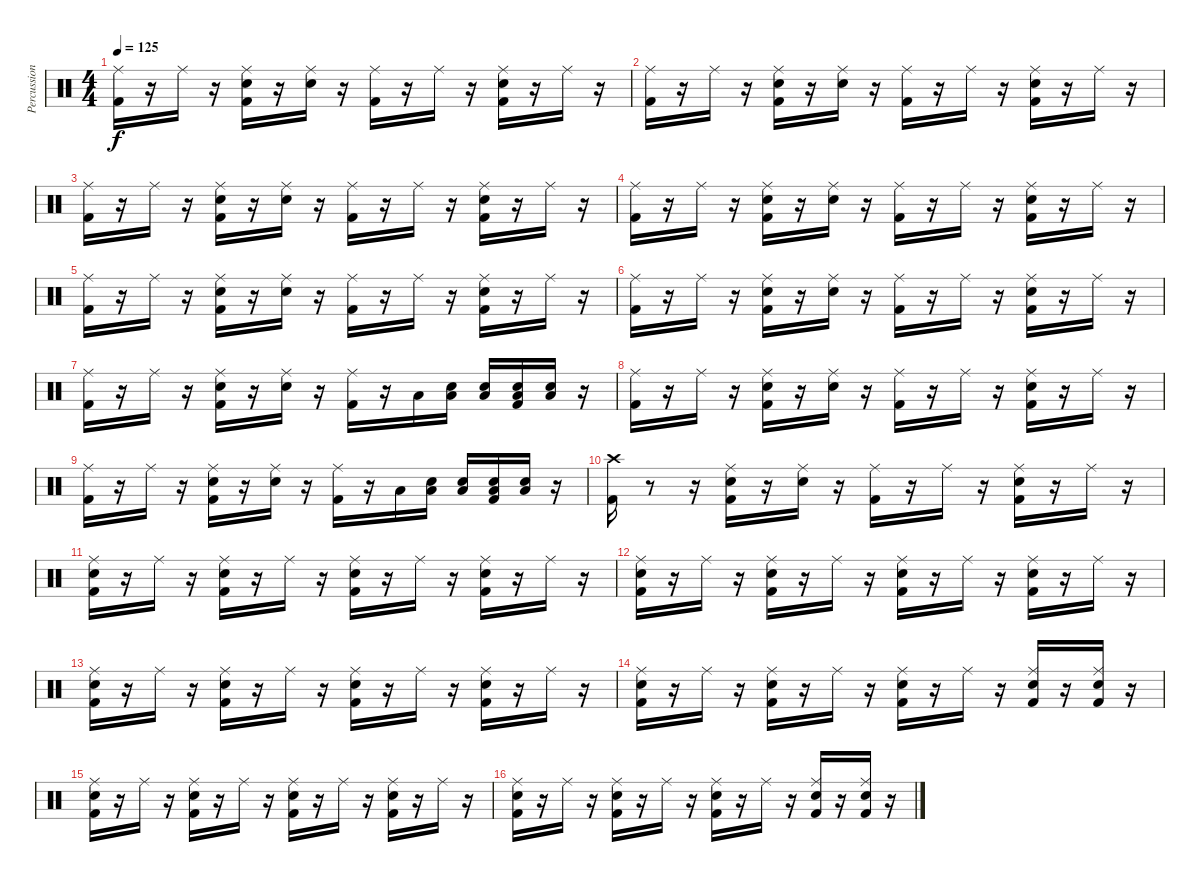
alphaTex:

\track ("Percussion" "Percussion") {instrument percussion}
\staff {score}
\articulation defaults
\ts (4 4)
\tempo 125
\clef neutral
\ks c
("Kick (hit) 2" "Ride (middle)").16{dy f} r.16 "Ride (middle)".16 r.16 ("Kick (hit) 2" "Snare (hit) 2" "Ride (middle)").16 r.16 ("Snare (hit) 2" "Ride (middle)").16 r.16 ("Kick (hit) 2" "Ride (middle)").16 r.16 "Ride (middle)".16 r.16 ("Kick (hit) 2" "Snare (hit) 2" "Ride (middle)").16 r.16 "Ride (middle)".16 r.16 |
("Kick (hit) 2" "Ride (middle)").16 r.16 "Ride (middle)".16 r.16 ("Kick (hit) 2" "Snare (hit) 2" "Ride (middle)").16 r.16 ("Snare (hit) 2" "Ride (middle)").16 r.16 ("Kick (hit) 2" "Ride (middle)").16 r.16 "Ride (middle)".16 r.16 ("Kick (hit) 2" "Snare (hit) 2" "Ride (middle)").16 r.16 "Ride (middle)".16 r.16 |
("Kick (hit) 2" "Ride (middle)").16 r.16 "Ride (middle)".16 r.16 ("Kick (hit) 2" "Snare (hit) 2" "Ride (middle)").16 r.16 ("Snare (hit) 2" "Ride (middle)").16 r.16 ("Kick (hit) 2" "Ride (middle)").16 r.16 "Ride (middle)".16 r.16 ("Kick (hit) 2" "Snare (hit) 2" "Ride (middle)").16 r.16 "Ride (middle)".16 r.16 |
("Kick (hit) 2" "Ride (middle)").16 r.16 "Ride (middle)".16 r.16 ("Kick (hit) 2" "Snare (hit) 2" "Ride (middle)").16 r.16 ("Snare (hit) 2" "Ride (middle)").16 r.16 ("Kick (hit) 2" "Ride (middle)").16 r.16 "Ride (middle)".16 r.16 ("Kick (hit) 2" "Snare (hit) 2" "Ride (middle)").16 r.16 "Ride (middle)".16 r.16 |
("Kick (hit) 2" "Ride (middle)").16 r.16 "Ride (middle)".16 r.16 ("Kick (hit) 2" "Snare (hit) 2" "Ride (middle)").16 r.16 ("Snare (hit) 2" "Ride (middle)").16 r.16 ("Kick (hit) 2" "Ride (middle)").16 r.16 "Ride (middle)".16 r.16 ("Kick (hit) 2" "Snare (hit) 2" "Ride (middle)").16 r.16 "Ride (middle)".16 r.16 |
("Kick (hit) 2" "Ride (middle)").16 r.16 "Ride (middle)".16 r.16 ("Kick (hit) 2" "Snare (hit) 2" "Ride (middle)").16 r.16 ("Snare (hit) 2" "Ride (middle)").16 r.16 ("Kick (hit) 2" "Ride (middle)").16 r.16 "Ride (middle)".16 r.16 ("Kick (hit) 2" "Snare (hit) 2" "Ride (middle)").16 r.16 "Ride (middle)".16 r.16 |
("Kick (hit) 2" "Ride (middle)").16 r.16 "Ride (middle)".16 r.16 ("Kick (hit) 2" "Snare (hit) 2" "Ride (middle)").16 r.16 ("Snare (hit) 2" "Ride (middle)").16 r.16 ("Kick (hit) 2" "Ride (middle)").16 r.16 "Low Floor Tom (hit)".16 ("Snare (hit)" "Low Floor Tom (hit)").16 ("Snare (hit)" "Low Floor Tom (hit)").16 ("Snare (hit)" "Kick (hit) 2" "Low Floor Tom (hit)").16 ("Snare (hit)" "Low Floor Tom (hit)").16 r.16 |
("Kick (hit) 2" "Ride (middle)").16 r.16 "Ride (middle)".16 r.16 ("Kick (hit) 2" "Snare (hit) 2" "Ride (middle)").16 r.16 ("Snare (hit) 2" "Ride (middle)").16 r.16 ("Kick (hit) 2" "Ride (middle)").16 r.16 "Ride (middle)".16 r.16 ("Kick (hit) 2" "Snare (hit) 2" "Ride (middle)").16 r.16 "Ride (middle)".16 r.16 |
("Kick (hit) 2" "Ride (middle)").16 r.16 "Ride (middle)".16 r.16 ("Kick (hit) 2" "Snare (hit) 2" "Ride (middle)").16 r.16 ("Snare (hit) 2" "Ride (middle)").16 r.16 ("Kick (hit) 2" "Ride (middle)").16 r.16 "Low Floor Tom (hit)".16 ("Snare (hit)" "Low Floor Tom (hit)").16 ("Snare (hit)" "Low Floor Tom (hit)").16 ("Snare (hit)" "Kick (hit) 2" "Low Floor Tom (hit)").16 ("Snare (hit)" "Low Floor Tom (hit)").16 r.16 |
("Kick (hit) 2" "Crash high (hit)").16 r.8 r.16 ("Kick (hit) 2" "Snare (hit) 2" "Ride (middle)").16 r.16 ("Snare (hit) 2" "Ride (middle)").16 r.16 ("Kick (hit) 2" "Ride (middle)").16 r.16 "Ride (middle)".16 r.16 ("Kick (hit) 2" "Snare (hit) 2" "Ride (middle)").16 r.16 "Ride (middle)".16 r.16 |
("Kick (hit) 2" "Snare (hit) 2" "Ride (middle)").16 r.16 "Ride (middle)".16 r.16 ("Kick (hit) 2" "Snare (hit) 2" "Ride (middle)").16 r.16 "Ride (middle)".16 r.16 ("Kick (hit) 2" "Snare (hit) 2" "Ride (middle)").16 r.16 "Ride (middle)".16 r.16 ("Kick (hit) 2" "Snare (hit) 2" "Ride (middle)").16 r.16 "Ride (middle)".16 r.16 |
("Kick (hit) 2" "Snare (hit) 2" "Ride (middle)").16 r.16 "Ride (middle)".16 r.16 ("Kick (hit) 2" "Snare (hit) 2" "Ride (middle)").16 r.16 "Ride (middle)".16 r.16 ("Kick (hit) 2" "Snare (hit) 2" "Ride (middle)").16 r.16 "Ride (middle)".16 r.16 ("Kick (hit) 2" "Snare (hit) 2" "Ride (middle)").16 r.16 "Ride (middle)".16 r.16 |
("Kick (hit) 2" "Snare (hit) 2" "Ride (middle)").16 r.16 "Ride (middle)".16 r.16 ("Kick (hit) 2" "Snare (hit) 2" "Ride (middle)").16 r.16 "Ride (middle)".16 r.16 ("Kick (hit) 2" "Snare (hit) 2" "Ride (middle)").16 r.16 "Ride (middle)".16 r.16 ("Kick (hit) 2" "Snare (hit) 2" "Ride (middle)").16 r.16 "Ride (middle)".16 r.16 |
("Kick (hit) 2" "Snare (hit) 2" "Ride (middle)").16 r.16 "Ride (middle)".16 r.16 ("Kick (hit) 2" "Snare (hit) 2" "Ride (middle)").16 r.16 "Ride (middle)".16 r.16 ("Kick (hit) 2" "Snare (hit) 2" "Ride (middle)").16 r.16 "Ride (middle)".16 r.16 ("Kick (hit) 2" "Snare (hit) 2" "Ride (middle)").16 r.16 ("Kick (hit) 2" "Snare (hit) 2" "Ride (middle)").16 r.16 |
("Kick (hit) 2" "Snare (hit) 2" "Ride (middle)").16 r.16 "Ride (middle)".16 r.16 ("Kick (hit) 2" "Snare (hit) 2" "Ride (middle)").16 r.16 "Ride (middle)".16 r.16 ("Kick (hit) 2" "Snare (hit) 2" "Ride (middle)").16 r.16 "Ride (middle)".16 r.16 ("Kick (hit) 2" "Snare (hit) 2" "Ride (middle)").16 r.16 "Ride (middle)".16 r.16 |
("Kick (hit) 2" "Snare (hit) 2" "Ride (middle)").16 r.16 "Ride (middle)".16 r.16 ("Kick (hit) 2" "Snare (hit) 2" "Ride (middle)").16 r.16 "Ride (middle)".16 r.16 ("Kick (hit) 2" "Snare (hit) 2" "Ride (middle)").16 r.16 "Ride (middle)".16 r.16 ("Kick (hit) 2" "Snare (hit) 2" "Ride (middle)").16 r.16 ("Kick (hit) 2" "Snare (hit) 2" "Ride (middle)").16 r.16
